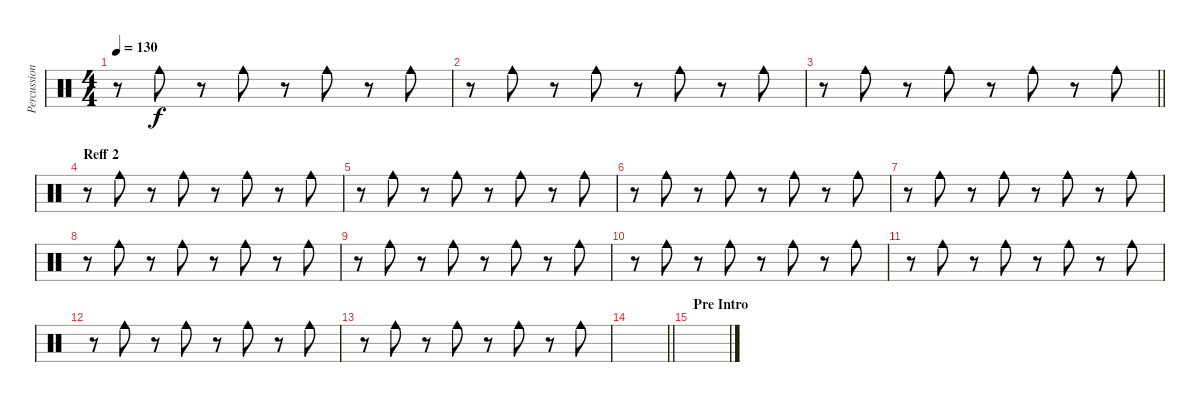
\track ("Percussion 2" "Percussion") {instrument percussion}
\staff {score}
\articulation defaults
\ts (4 4)
\tempo 130
\clef neutral
\ks c
r.8{dy f} "Cowbell medium (hit)".8 r.8 "Cowbell medium (hit)".8 r.8 "Cowbell medium (hit)".8 r.8 "Cowbell medium (hit)".8 |
r.8 "Cowbell medium (hit)".8 r.8 "Cowbell medium (hit)".8 r.8 "Cowbell medium (hit)".8 r.8 "Cowbell medium (hit)".8 |
\barLineRight lightlight
r.8 "Cowbell medium (hit)".8 r.8 "Cowbell medium (hit)".8 r.8 "Cowbell medium (hit)".8 r.8 "Cowbell medium (hit)".8 |
\section ("" "Reff 2")
r.8 "Cowbell medium (hit)".8 r.8 "Cowbell medium (hit)".8 r.8 "Cowbell medium (hit)".8 r.8 "Cowbell medium (hit)".8 |
r.8 "Cowbell medium (hit)".8 r.8 "Cowbell medium (hit)".8 r.8 "Cowbell medium (hit)".8 r.8 "Cowbell medium (hit)".8 |
r.8 "Cowbell medium (hit)".8 r.8 "Cowbell medium (hit)".8 r.8 "Cowbell medium (hit)".8 r.8 "Cowbell medium (hit)".8 |
r.8 "Cowbell medium (hit)".8 r.8 "Cowbell medium (hit)".8 r.8 "Cowbell medium (hit)".8 r.8 "Cowbell medium (hit)".8 |
r.8 "Cowbell medium (hit)".8 r.8 "Cowbell medium (hit)".8 r.8 "Cowbell medium (hit)".8 r.8 "Cowbell medium (hit)".8 |
r.8 "Cowbell medium (hit)".8 r.8 "Cowbell medium (hit)".8 r.8 "Cowbell medium (hit)".8 r.8 "Cowbell medium (hit)".8 |
r.8 "Cowbell medium (hit)".8 r.8 "Cowbell medium (hit)".8 r.8 "Cowbell medium (hit)".8 r.8 "Cowbell medium (hit)".8 |
r.8 "Cowbell medium (hit)".8 r.8 "Cowbell medium (hit)".8 r.8 "Cowbell medium (hit)".8 r.8 "Cowbell medium (hit)".8 |
r.8 "Cowbell medium (hit)".8 r.8 "Cowbell medium (hit)".8 r.8 "Cowbell medium (hit)".8 r.8 "Cowbell medium (hit)".8 |
r.8 "Cowbell medium (hit)".8 r.8 "Cowbell medium (hit)".8 r.8 "Cowbell medium (hit)".8 r.8 "Cowbell medium (hit)".8 |
\barLineRight lightlight
|
\section ("" "Pre Intro")
